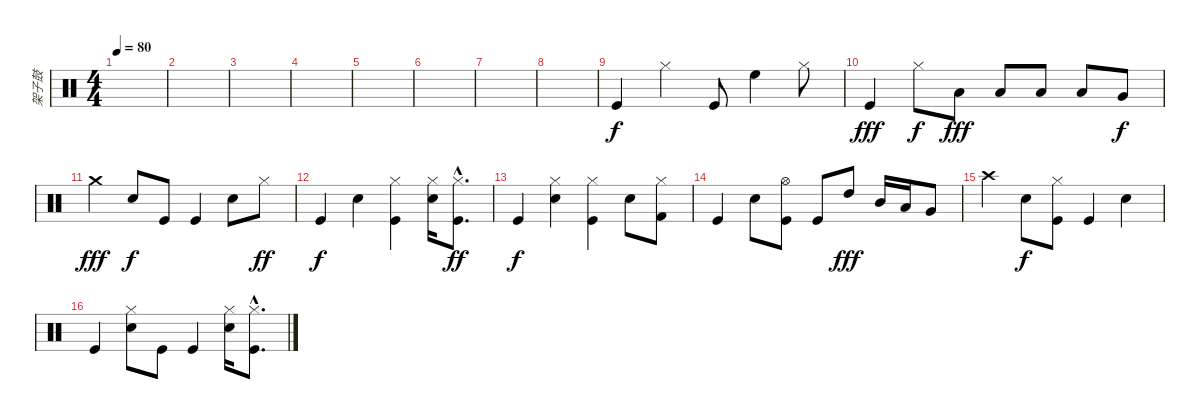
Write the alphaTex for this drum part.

\track ("架子鼓" "架子鼓") {instrument percussion}
\staff {score}
\articulation defaults
\ts (4 4)
\tempo 80
\clef neutral
\ks c
|
|
|
|
|
|
|
|
"Kick (hit)".4 "Hi-Hat (closed)".4 "Kick (hit)".8 "High Floor Tom (hit)".4 "Hi-Hat (closed)".8 |
"Kick (hit)".4{dy fff} "Hi-Hat (closed)".8{dy f} "Low Tom (hit)".8{dy fff} "Low Tom (hit)".8 "Low Tom (hit)".8 "Low Tom (hit)".8 "Very Low Tom (hit)".8{dy f} |
"Crash medium (hit)".4{dy fff} "Snare (hit) 2".8{dy f} "Kick (hit)".8 "Kick (hit)".4 "Snare (hit) 2".8 "Hi-Hat (closed)".8{dy ff} |
"Kick (hit)".4{dy f} "Snare (hit) 2".4 ("Hi-Hat (closed)" "Kick (hit)").4 ("Hi-Hat (closed)" "Snare (hit) 2").16 ("Hi-Hat (closed)"{hac} "Kick (hit)"{hac}).8{d dy ff} |
"Kick (hit)".4{dy f} ("Hi-Hat (closed)" "Snare (hit) 2").4 ("Hi-Hat (closed)" "Kick (hit)").4 "Snare (hit) 2".8 ("Hi-Hat (closed)" "Kick (hit) 2").8 |
"Kick (hit)".4 "Snare (hit) 2".8 ("Hi-Hat (open)" "Kick (hit)").8 "Kick (hit)".8 "High Tom (hit)".8{dy fff} "Mid Tom (hit)".16 "Low Tom (hit)".16 "Very Low Tom (hit)".8 |
"Crash high (hit)".4 "Snare (hit) 2".8{dy f} ("Hi-Hat (closed)" "Kick (hit)").8 "Kick (hit)".4 "Snare (hit) 2".4 |
"Kick (hit)".4 ("Hi-Hat (closed)" "Snare (hit) 2").8 "Kick (hit)".8 "Kick (hit)".4 ("Hi-Hat (closed)" "Snare (hit) 2").16 ("Hi-Hat (closed)"{hac} "Kick (hit)"{hac}).8{d}
